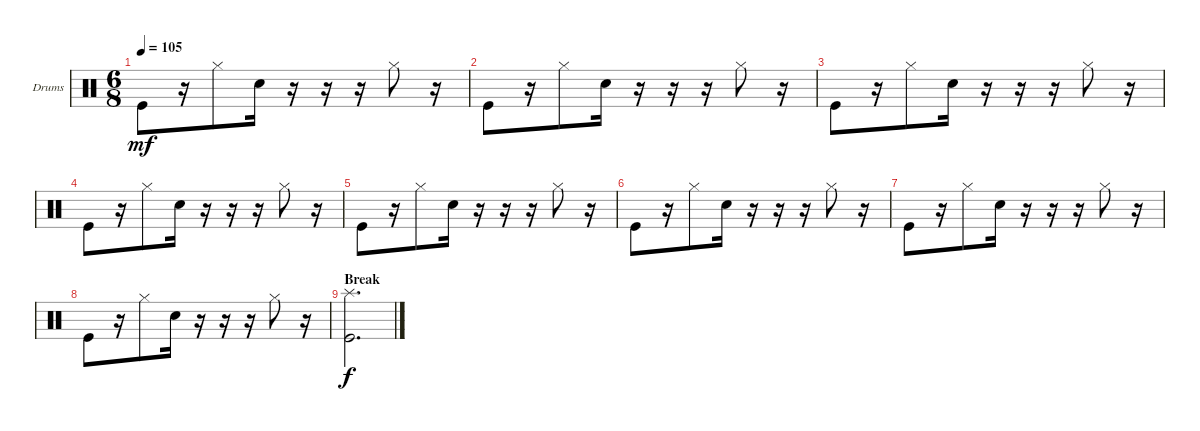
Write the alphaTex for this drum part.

\defaultSystemsLayout 4
\bracketExtendMode nobrackets
\firstSystemTrackNameOrientation horizontal
\otherSystemsTrackNameOrientation horizontal
\track ("Drumkit" "Drums") {instrument percussion}
\staff {score}
\articulation defaults
\ts (6 8)
\tempo 105
\clef neutral
\ks c "Kick (hit)".8{dy mf}
r.16 "Hi-Hat (closed)".8 "Snare (hit) 2".16 r.16 r.16 r.16 "Hi-Hat (closed)".8 r.16 |
"Kick (hit)".8 r.16 "Hi-Hat (closed)".8 "Snare (hit) 2".16 r.16 r.16 r.16 "Hi-Hat (closed)".8 r.16 |
"Kick (hit)".8 r.16 "Hi-Hat (closed)".8 "Snare (hit) 2".16 r.16 r.16 r.16 "Hi-Hat (closed)".8 r.16 |
"Kick (hit)".8 r.16 "Hi-Hat (closed)".8 "Snare (hit) 2".16 r.16 r.16 r.16 "Hi-Hat (closed)".8 r.16 |
"Kick (hit)".8 r.16 "Hi-Hat (closed)".8 "Snare (hit) 2".16 r.16 r.16 r.16 "Hi-Hat (closed)".8 r.16 |
"Kick (hit)".8 r.16 "Hi-Hat (closed)".8 "Snare (hit) 2".16 r.16 r.16 r.16 "Hi-Hat (closed)".8 r.16 |
"Kick (hit)".8 r.16 "Hi-Hat (closed)".8 "Snare (hit) 2".16 r.16 r.16 r.16 "Hi-Hat (closed)".8 r.16 |
"Kick (hit)".8 r.16 "Hi-Hat (closed)".8 "Snare (hit) 2".16 r.16 r.16 r.16 "Hi-Hat (closed)".8 r.16 |
\section ("" "Break")
("Splash (hit)" "Kick (hit)").2{d dy f}
